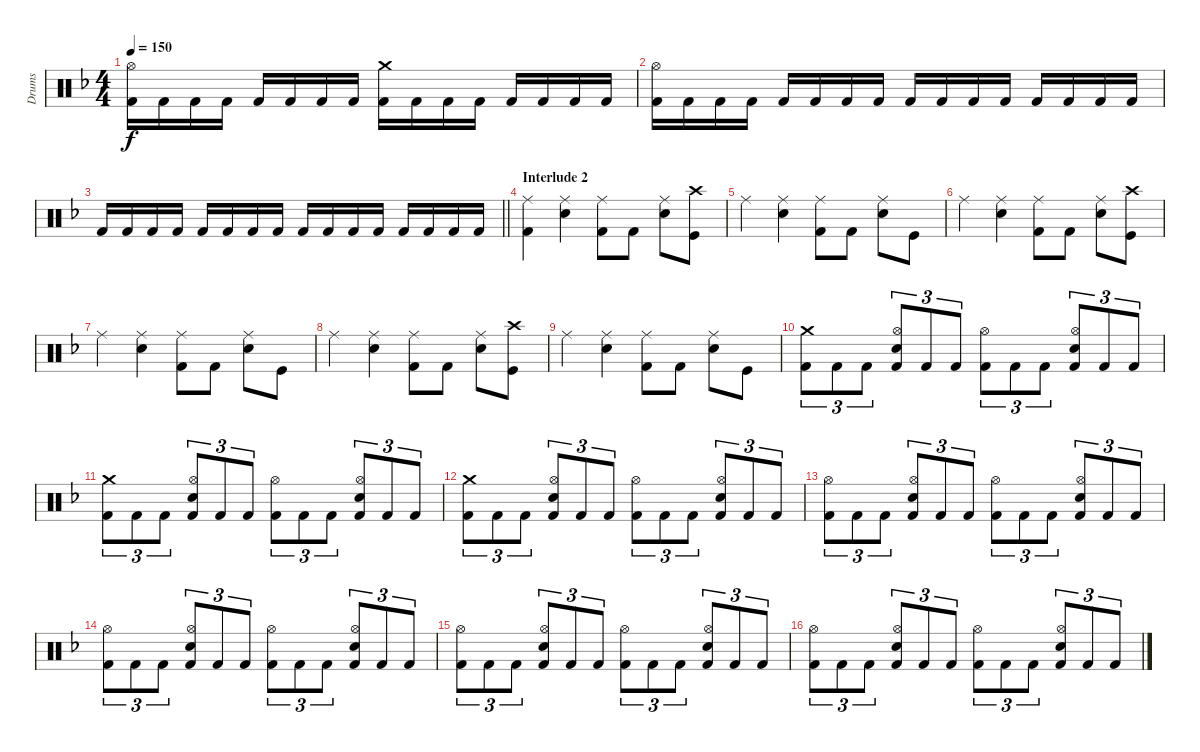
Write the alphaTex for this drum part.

\track ("Drums" "Drums") {instrument percussion}
\staff {score}
\articulation defaults
\ts (4 4)
\tempo 150
\clef neutral
\ks f
("Kick (hit) 2" "Hi-Hat (open)").16{dy f} "Kick (hit) 2".16 "Kick (hit) 2".16 "Kick (hit) 2".16 "Kick (hit) 2".16 "Kick (hit) 2".16 "Kick (hit) 2".16 "Kick (hit) 2".16 ("Kick (hit) 2" "Crash medium (hit)").16 "Kick (hit) 2".16 "Kick (hit) 2".16 "Kick (hit) 2".16 "Kick (hit) 2".16 "Kick (hit) 2".16 "Kick (hit) 2".16 "Kick (hit) 2".16 |
("Kick (hit) 2" "Hi-Hat (open)").16 "Kick (hit) 2".16 "Kick (hit) 2".16 "Kick (hit) 2".16 "Kick (hit) 2".16 "Kick (hit) 2".16 "Kick (hit) 2".16 "Kick (hit) 2".16 "Kick (hit) 2".16 "Kick (hit) 2".16 "Kick (hit) 2".16 "Kick (hit) 2".16 "Kick (hit) 2".16 "Kick (hit) 2".16 "Kick (hit) 2".16 "Kick (hit) 2".16 |
\barLineRight lightlight "Kick (hit) 2".16 "Kick (hit) 2".16 "Kick (hit) 2".16 "Kick (hit) 2".16 "Kick (hit) 2".16 "Kick (hit) 2".16 "Kick (hit) 2".16 "Kick (hit) 2".16 "Kick (hit) 2".16 "Kick (hit) 2".16 "Kick (hit) 2".16 "Kick (hit) 2".16 "Kick (hit) 2".16 "Kick (hit) 2".16 "Kick (hit) 2".16 "Kick (hit) 2".16
|
\section ("" "Interlude 2")
("Kick (hit) 2" "Ride (middle)").4 ("Snare (hit) 2" "Ride (middle)").4 ("Kick (hit) 2" "Ride (middle)").8 "Kick (hit) 2".8 ("Ride (middle)" "Snare (hit) 2").8 ("Kick (hit)" "Crash high (hit)").8 |
"Ride (middle)".4 ("Snare (hit) 2" "Ride (middle)").4 ("Kick (hit) 2" "Ride (middle)").8 "Kick (hit) 2".8 ("Ride (middle)" "Snare (hit) 2").8 "Kick (hit)".8 |
"Ride (middle)".4 ("Snare (hit) 2" "Ride (middle)").4 ("Kick (hit) 2" "Ride (middle)").8 "Kick (hit) 2".8 ("Ride (middle)" "Snare (hit) 2").8 ("Kick (hit)" "Crash high (hit)").8 |
"Ride (middle)".4 ("Snare (hit) 2" "Ride (middle)").4 ("Kick (hit) 2" "Ride (middle)").8 "Kick (hit) 2".8 ("Ride (middle)" "Snare (hit) 2").8 "Kick (hit)".8 |
"Ride (middle)".4 ("Snare (hit) 2" "Ride (middle)").4 ("Kick (hit) 2" "Ride (middle)").8 "Kick (hit) 2".8 ("Ride (middle)" "Snare (hit) 2").8 ("Kick (hit)" "Crash high (hit)").8 |
"Ride (middle)".4 ("Snare (hit) 2" "Ride (middle)").4 ("Kick (hit) 2" "Ride (middle)").8 "Kick (hit) 2".8 ("Ride (middle)" "Snare (hit) 2").8 "Kick (hit)".8 |
("Crash medium (hit)" "Kick (hit) 2").8{tu (3 2)} "Kick (hit) 2".8{tu (3 2)} "Kick (hit) 2".8{tu (3 2)} ("Snare (hit) 2" "Hi-Hat (open)" "Kick (hit) 2").8{tu (3 2)} "Kick (hit) 2".8{tu (3 2)} "Kick (hit) 2".8{tu (3 2)} ("Hi-Hat (open)" "Kick (hit) 2").8{tu (3 2)} "Kick (hit) 2".8{tu (3 2)} "Kick (hit) 2".8{tu (3 2)} ("Snare (hit) 2" "Hi-Hat (open)" "Kick (hit) 2").8{tu (3 2)} "Kick (hit) 2".8{tu (3 2)} "Kick (hit) 2".8{tu (3 2)} |
("Crash medium (hit)" "Kick (hit) 2").8{tu (3 2)} "Kick (hit) 2".8{tu (3 2)} "Kick (hit) 2".8{tu (3 2)} ("Snare (hit) 2" "Hi-Hat (open)" "Kick (hit) 2").8{tu (3 2)} "Kick (hit) 2".8{tu (3 2)} "Kick (hit) 2".8{tu (3 2)} ("Hi-Hat (open)" "Kick (hit) 2").8{tu (3 2)} "Kick (hit) 2".8{tu (3 2)} "Kick (hit) 2".8{tu (3 2)} ("Snare (hit) 2" "Hi-Hat (open)" "Kick (hit) 2").8{tu (3 2)} "Kick (hit) 2".8{tu (3 2)} "Kick (hit) 2".8{tu (3 2)} |
("Crash medium (hit)" "Kick (hit) 2").8{tu (3 2)} "Kick (hit) 2".8{tu (3 2)} "Kick (hit) 2".8{tu (3 2)} ("Snare (hit) 2" "Hi-Hat (open)" "Kick (hit) 2").8{tu (3 2)} "Kick (hit) 2".8{tu (3 2)} "Kick (hit) 2".8{tu (3 2)} ("Hi-Hat (open)" "Kick (hit) 2").8{tu (3 2)} "Kick (hit) 2".8{tu (3 2)} "Kick (hit) 2".8{tu (3 2)} ("Snare (hit) 2" "Hi-Hat (open)" "Kick (hit) 2").8{tu (3 2)} "Kick (hit) 2".8{tu (3 2)} "Kick (hit) 2".8{tu (3 2)} |
("Hi-Hat (open)" "Kick (hit) 2").8{tu (3 2)} "Kick (hit) 2".8{tu (3 2)} "Kick (hit) 2".8{tu (3 2)} ("Snare (hit) 2" "Hi-Hat (open)" "Kick (hit) 2").8{tu (3 2)} "Kick (hit) 2".8{tu (3 2)} "Kick (hit) 2".8{tu (3 2)} ("Hi-Hat (open)" "Kick (hit) 2").8{tu (3 2)} "Kick (hit) 2".8{tu (3 2)} "Kick (hit) 2".8{tu (3 2)} ("Snare (hit) 2" "Hi-Hat (open)" "Kick (hit) 2").8{tu (3 2)} "Kick (hit) 2".8{tu (3 2)} "Kick (hit) 2".8{tu (3 2)} |
("Hi-Hat (open)" "Kick (hit) 2").8{tu (3 2)} "Kick (hit) 2".8{tu (3 2)} "Kick (hit) 2".8{tu (3 2)} ("Snare (hit) 2" "Hi-Hat (open)" "Kick (hit) 2").8{tu (3 2)} "Kick (hit) 2".8{tu (3 2)} "Kick (hit) 2".8{tu (3 2)} ("Hi-Hat (open)" "Kick (hit) 2").8{tu (3 2)} "Kick (hit) 2".8{tu (3 2)} "Kick (hit) 2".8{tu (3 2)} ("Snare (hit) 2" "Hi-Hat (open)" "Kick (hit) 2").8{tu (3 2)} "Kick (hit) 2".8{tu (3 2)} "Kick (hit) 2".8{tu (3 2)} |
("Hi-Hat (open)" "Kick (hit) 2").8{tu (3 2)} "Kick (hit) 2".8{tu (3 2)} "Kick (hit) 2".8{tu (3 2)} ("Snare (hit) 2" "Hi-Hat (open)" "Kick (hit) 2").8{tu (3 2)} "Kick (hit) 2".8{tu (3 2)} "Kick (hit) 2".8{tu (3 2)} ("Hi-Hat (open)" "Kick (hit) 2").8{tu (3 2)} "Kick (hit) 2".8{tu (3 2)} "Kick (hit) 2".8{tu (3 2)} ("Snare (hit) 2" "Hi-Hat (open)" "Kick (hit) 2").8{tu (3 2)} "Kick (hit) 2".8{tu (3 2)} "Kick (hit) 2".8{tu (3 2)} |
("Hi-Hat (open)" "Kick (hit) 2").8{tu (3 2)} "Kick (hit) 2".8{tu (3 2)} "Kick (hit) 2".8{tu (3 2)} ("Snare (hit) 2" "Hi-Hat (open)" "Kick (hit) 2").8{tu (3 2)} "Kick (hit) 2".8{tu (3 2)} "Kick (hit) 2".8{tu (3 2)} ("Hi-Hat (open)" "Kick (hit) 2").8{tu (3 2)} "Kick (hit) 2".8{tu (3 2)} "Kick (hit) 2".8{tu (3 2)} ("Snare (hit) 2" "Hi-Hat (open)" "Kick (hit) 2").8{tu (3 2)} "Kick (hit) 2".8{tu (3 2)} "Kick (hit) 2".8{tu (3 2)}
